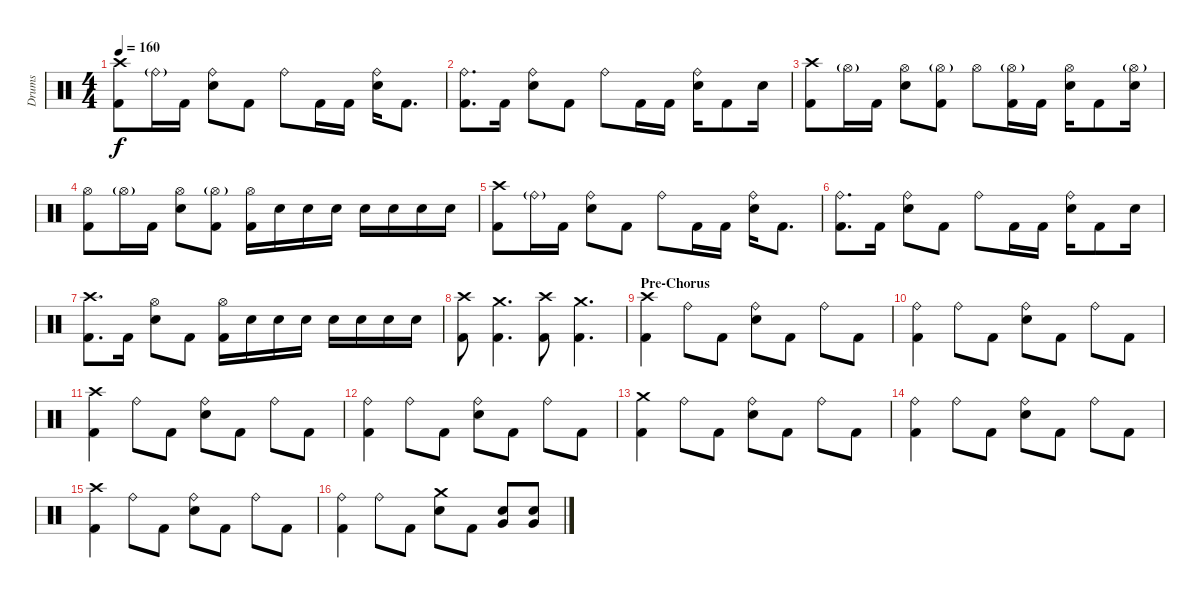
\track ("Drums" "Drums") {instrument percussion}
\staff {score}
\articulation defaults
\ts (4 4)
\tempo 160
\clef neutral
\ks c
("Crash high (hit)" "Kick (hit) 2").8{dy f} "Ride (bell)"{g}.16 "Kick (hit) 2".16 ("Ride (bell)" "Snare (hit) 2").8 "Kick (hit) 2".8 "Ride (bell)".8 "Kick (hit) 2".16 "Kick (hit) 2".16 ("Ride (bell)" "Snare (hit) 2").16 "Kick (hit) 2".8{d} |
("Ride (bell)" "Kick (hit) 2").8{d} "Kick (hit) 2".16 ("Ride (bell)" "Snare (hit) 2").8 "Kick (hit) 2".8 "Ride (bell)".8 "Kick (hit) 2".16 "Kick (hit) 2".16 ("Ride (bell)" "Snare (hit) 2").16 "Kick (hit) 2".8 "Snare (hit) 2".16 |
("Crash high (hit)" "Kick (hit) 2").8 "Hi-Hat (open)"{g}.16 "Kick (hit) 2".16 ("Hi-Hat (open)" "Snare (hit) 2").8 ("Hi-Hat (open)"{g} "Kick (hit) 2").8 "Hi-Hat (open)".8 ("Hi-Hat (open)"{g} "Kick (hit) 2").16 "Kick (hit) 2".16 ("Hi-Hat (open)" "Snare (hit) 2").16 "Kick (hit) 2".8 ("Hi-Hat (open)"{g} "Snare (hit) 2").16 |
("Hi-Hat (open)" "Kick (hit) 2").8 "Hi-Hat (open)"{g}.16 "Kick (hit) 2".16 ("Hi-Hat (open)" "Snare (hit) 2").8 ("Hi-Hat (open)"{g} "Kick (hit) 2").8 ("Hi-Hat (open)" "Kick (hit) 2").16 "Snare (hit) 2".16 "Snare (hit) 2".16 "Snare (hit) 2".16 "Snare (hit) 2".16 "Snare (hit) 2".16 "Snare (hit) 2".16 "Snare (hit) 2".16 |
("Crash high (hit)" "Kick (hit) 2").8 "Ride (bell)"{g}.16 "Kick (hit) 2".16 ("Ride (bell)" "Snare (hit) 2").8 "Kick (hit) 2".8 "Ride (bell)".8 "Kick (hit) 2".16 "Kick (hit) 2".16 ("Ride (bell)" "Snare (hit) 2").16 "Kick (hit) 2".8{d} |
("Ride (bell)" "Kick (hit) 2").8{d} "Kick (hit) 2".16 ("Ride (bell)" "Snare (hit) 2").8 "Kick (hit) 2".8 "Ride (bell)".8 "Kick (hit) 2".16 "Kick (hit) 2".16 ("Ride (bell)" "Snare (hit) 2").16 "Kick (hit) 2".8 "Snare (hit) 2".16 |
("Crash high (hit)" "Kick (hit) 2").8{d} "Kick (hit) 2".16 ("Hi-Hat (open)" "Snare (hit) 2").8 "Kick (hit) 2".8 ("Hi-Hat (open)" "Kick (hit) 2").16 "Snare (hit) 2".16 "Snare (hit) 2".16 "Snare (hit) 2".16 "Snare (hit) 2".16 "Snare (hit) 2".16 "Snare (hit) 2".16 "Snare (hit) 2".16 |
("Crash high (hit)" "Kick (hit) 2").8 ("Crash medium (hit)" "Kick (hit) 2").4{d} ("Crash high (hit)" "Kick (hit) 2").8 ("Crash medium (hit)" "Kick (hit) 2").4{d} |
\section ("" "Pre-Chorus")
("Crash high (hit)" "Kick (hit) 2").4 "Ride (bell)".8 "Kick (hit) 2".8 ("Ride (bell)" "Snare (hit) 2").8 "Kick (hit) 2".8 "Ride (bell)".8 "Kick (hit) 2".8 |
("Ride (bell)" "Kick (hit) 2").4 "Ride (bell)".8 "Kick (hit) 2".8 ("Ride (bell)" "Snare (hit) 2").8 "Kick (hit) 2".8 "Ride (bell)".8 "Kick (hit) 2".8 |
("Crash high (hit)" "Kick (hit) 2").4 "Ride (bell)".8 "Kick (hit) 2".8 ("Ride (bell)" "Snare (hit) 2").8 "Kick (hit) 2".8 "Ride (bell)".8 "Kick (hit) 2".8 |
("Ride (bell)" "Kick (hit) 2").4 "Ride (bell)".8 "Kick (hit) 2".8 ("Ride (bell)" "Snare (hit) 2").8 "Kick (hit) 2".8 "Ride (bell)".8 "Kick (hit) 2".8 |
("Crash medium (hit)" "Kick (hit) 2").4 "Ride (bell)".8 "Kick (hit) 2".8 ("Ride (bell)" "Snare (hit) 2").8 "Kick (hit) 2".8 "Ride (bell)".8 "Kick (hit) 2".8 |
("Ride (bell)" "Kick (hit) 2").4 "Ride (bell)".8 "Kick (hit) 2".8 ("Ride (bell)" "Snare (hit) 2").8 "Kick (hit) 2".8 "Ride (bell)".8 "Kick (hit) 2".8 |
("Crash high (hit)" "Kick (hit) 2").4 "Ride (bell)".8 "Kick (hit) 2".8 ("Ride (bell)" "Snare (hit) 2").8 "Kick (hit) 2".8 "Ride (bell)".8 "Kick (hit) 2".8 |
("Ride (bell)" "Kick (hit) 2").4 "Ride (bell)".8 "Kick (hit) 2".8 ("Crash medium (hit)" "Snare (hit) 2").8 "Kick (hit) 2".8 ("Very Low Tom (hit)" "Snare (hit) 2").8 ("Very Low Tom (hit)" "Snare (hit) 2").8
